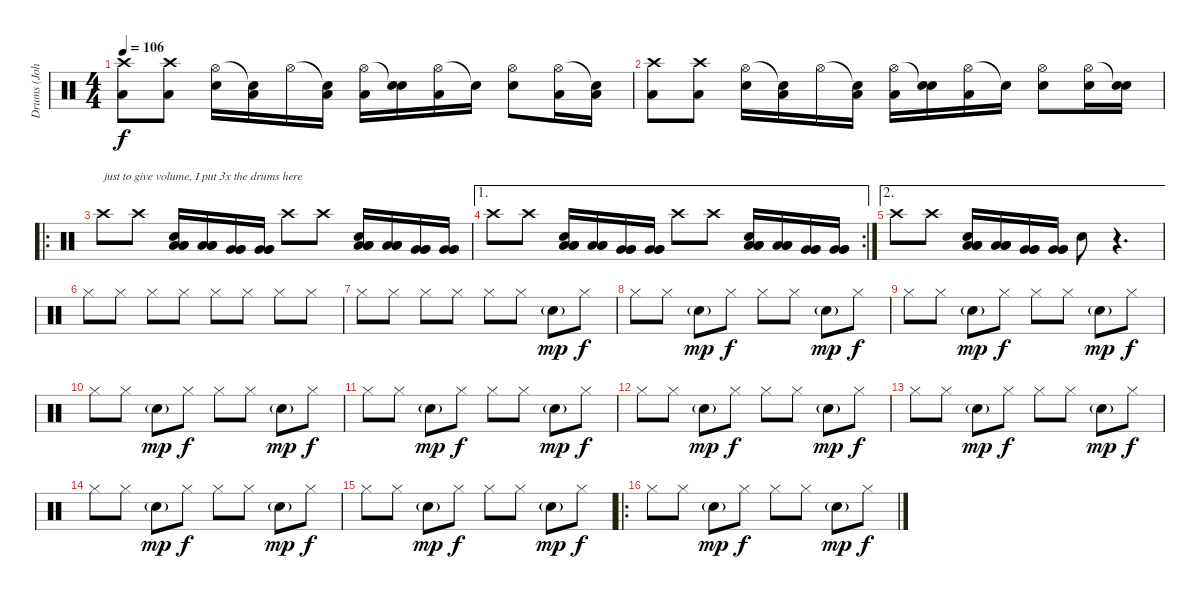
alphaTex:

\track ("Drums (John)" "Drums (Joh") {instrument percussion}
\staff {score}
\articulation defaults
\ts (4 4)
\tempo 106
\clef neutral
\ks c
("Crash high (hit)" "Low Tom (hit)").8{dy f} ("Crash high (hit)" "Low Tom (hit)").8 ("Hi-Hat (open)" "Electric Snare (hit)").16 ("Snare (hit)"{t} "Low Tom (hit)").16 "Hi-Hat (open)".16 ("Snare (hit)"{t} "Low Tom (hit)").16 ("Hi-Hat (open)" "Low Tom (hit)").16 ("Snare (hit)"{t} "Electric Snare (hit)").16 ("Hi-Hat (open)" "Low Tom (hit)").16 "Snare (hit)"{t}.16 ("Hi-Hat (open)" "Electric Snare (hit)").8 ("Hi-Hat (open)" "Low Tom (hit)").16 ("Snare (hit)"{t} "Low Tom (hit)").16 |
("Crash high (hit)" "Low Tom (hit)").8 ("Crash high (hit)" "Low Tom (hit)").8 ("Hi-Hat (open)" "Electric Snare (hit)").16 ("Snare (hit)"{t} "Low Tom (hit)").16 "Hi-Hat (open)".16 ("Snare (hit)"{t} "Low Tom (hit)").16 ("Hi-Hat (open)" "Low Tom (hit)").16 ("Snare (hit)"{t} "Electric Snare (hit)").16 ("Hi-Hat (open)" "Low Tom (hit)").16 "Snare (hit)"{t}.16 ("Hi-Hat (open)" "Electric Snare (hit)").8 ("Hi-Hat (open)" "Electric Snare (hit)").16 ("Snare (hit)"{t} "Electric Snare (hit)").16 |
\ro "Crash high (hit)".8{txt "just to give volume, I put 3x the drums here"} "Crash high (hit)".8
("Low Tom (hit)" "Low Tom (hit)" "Low Tom (hit)" "Electric Snare (hit)").16 ("Low Tom (hit)" "Low Tom (hit)" "Low Tom (hit)").16 ("Very Low Tom (hit)" "Very Low Tom (hit)" "Very Low Tom (hit)").16 ("Very Low Tom (hit)" "Very Low Tom (hit)" "Very Low Tom (hit)").16 "Crash high (hit)".8 "Crash high (hit)".8 ("Low Tom (hit)" "Low Tom (hit)" "Low Tom (hit)" "Electric Snare (hit)").16 ("Low Tom (hit)" "Low Tom (hit)" "Low Tom (hit)").16 ("Very Low Tom (hit)" "Very Low Tom (hit)" "Very Low Tom (hit)").16 ("Very Low Tom (hit)" "Very Low Tom (hit)" "Very Low Tom (hit)").16 |
\ae 1
\rc 2 "Crash high (hit)".8 "Crash high (hit)".8
("Low Tom (hit)" "Low Tom (hit)" "Low Tom (hit)" "Electric Snare (hit)").16 ("Low Tom (hit)" "Low Tom (hit)" "Low Tom (hit)").16 ("Very Low Tom (hit)" "Very Low Tom (hit)" "Very Low Tom (hit)").16 ("Very Low Tom (hit)" "Very Low Tom (hit)" "Very Low Tom (hit)").16 "Crash high (hit)".8 "Crash high (hit)".8 ("Low Tom (hit)" "Low Tom (hit)" "Low Tom (hit)" "Electric Snare (hit)").16 ("Low Tom (hit)" "Low Tom (hit)" "Low Tom (hit)").16 ("Very Low Tom (hit)" "Very Low Tom (hit)" "Very Low Tom (hit)").16 ("Very Low Tom (hit)" "Very Low Tom (hit)" "Very Low Tom (hit)").16 |
\ae 2 "Crash high (hit)".8 "Crash high (hit)".8
("Low Tom (hit)" "Low Tom (hit)" "Low Tom (hit)" "Electric Snare (hit)").16 ("Low Tom (hit)" "Low Tom (hit)" "Low Tom (hit)").16 ("Very Low Tom (hit)" "Very Low Tom (hit)" "Very Low Tom (hit)").16 ("Very Low Tom (hit)" "Very Low Tom (hit)" "Very Low Tom (hit)").16 "Electric Snare (hit)".8 r.4{d} |
"Hi-Hat (closed)".8 "Hi-Hat (closed)".8 "Hi-Hat (closed)".8 "Hi-Hat (closed)".8 "Hi-Hat (closed)".8 "Hi-Hat (closed)".8 "Hi-Hat (closed)".8 "Hi-Hat (closed)".8 |
"Hi-Hat (closed)".8 "Hi-Hat (closed)".8 "Hi-Hat (closed)".8 "Hi-Hat (closed)".8 "Hi-Hat (closed)".8 "Hi-Hat (closed)".8 "Electric Snare (hit)"{g}.8{dy mp} "Hi-Hat (closed)".8{dy f} |
"Hi-Hat (closed)".8 "Hi-Hat (closed)".8 "Electric Snare (hit)"{g}.8{dy mp} "Hi-Hat (closed)".8{dy f} "Hi-Hat (closed)".8 "Hi-Hat (closed)".8 "Electric Snare (hit)"{g}.8{dy mp} "Hi-Hat (closed)".8{dy f} |
"Hi-Hat (closed)".8 "Hi-Hat (closed)".8 "Electric Snare (hit)"{g}.8{dy mp} "Hi-Hat (closed)".8{dy f} "Hi-Hat (closed)".8 "Hi-Hat (closed)".8 "Electric Snare (hit)"{g}.8{dy mp} "Hi-Hat (closed)".8{dy f} |
"Hi-Hat (closed)".8 "Hi-Hat (closed)".8 "Electric Snare (hit)"{g}.8{dy mp} "Hi-Hat (closed)".8{dy f} "Hi-Hat (closed)".8 "Hi-Hat (closed)".8 "Electric Snare (hit)"{g}.8{dy mp} "Hi-Hat (closed)".8{dy f} |
"Hi-Hat (closed)".8 "Hi-Hat (closed)".8 "Electric Snare (hit)"{g}.8{dy mp} "Hi-Hat (closed)".8{dy f} "Hi-Hat (closed)".8 "Hi-Hat (closed)".8 "Electric Snare (hit)"{g}.8{dy mp} "Hi-Hat (closed)".8{dy f} |
"Hi-Hat (closed)".8 "Hi-Hat (closed)".8 "Electric Snare (hit)"{g}.8{dy mp} "Hi-Hat (closed)".8{dy f} "Hi-Hat (closed)".8 "Hi-Hat (closed)".8 "Electric Snare (hit)"{g}.8{dy mp} "Hi-Hat (closed)".8{dy f} |
"Hi-Hat (closed)".8 "Hi-Hat (closed)".8 "Electric Snare (hit)"{g}.8{dy mp} "Hi-Hat (closed)".8{dy f} "Hi-Hat (closed)".8 "Hi-Hat (closed)".8 "Electric Snare (hit)"{g}.8{dy mp} "Hi-Hat (closed)".8{dy f} |
"Hi-Hat (closed)".8 "Hi-Hat (closed)".8 "Electric Snare (hit)"{g}.8{dy mp} "Hi-Hat (closed)".8{dy f} "Hi-Hat (closed)".8 "Hi-Hat (closed)".8 "Electric Snare (hit)"{g}.8{dy mp} "Hi-Hat (closed)".8{dy f} |
"Hi-Hat (closed)".8 "Hi-Hat (closed)".8 "Electric Snare (hit)"{g}.8{dy mp} "Hi-Hat (closed)".8{dy f} "Hi-Hat (closed)".8 "Hi-Hat (closed)".8 "Electric Snare (hit)"{g}.8{dy mp} "Hi-Hat (closed)".8{dy f} |
\ro "Hi-Hat (closed)".8 "Hi-Hat (closed)".8 "Electric Snare (hit)"{g}.8{dy mp} "Hi-Hat (closed)".8{dy f} "Hi-Hat (closed)".8 "Hi-Hat (closed)".8 "Electric Snare (hit)"{g}.8{dy mp} "Hi-Hat (closed)".8{dy f}
